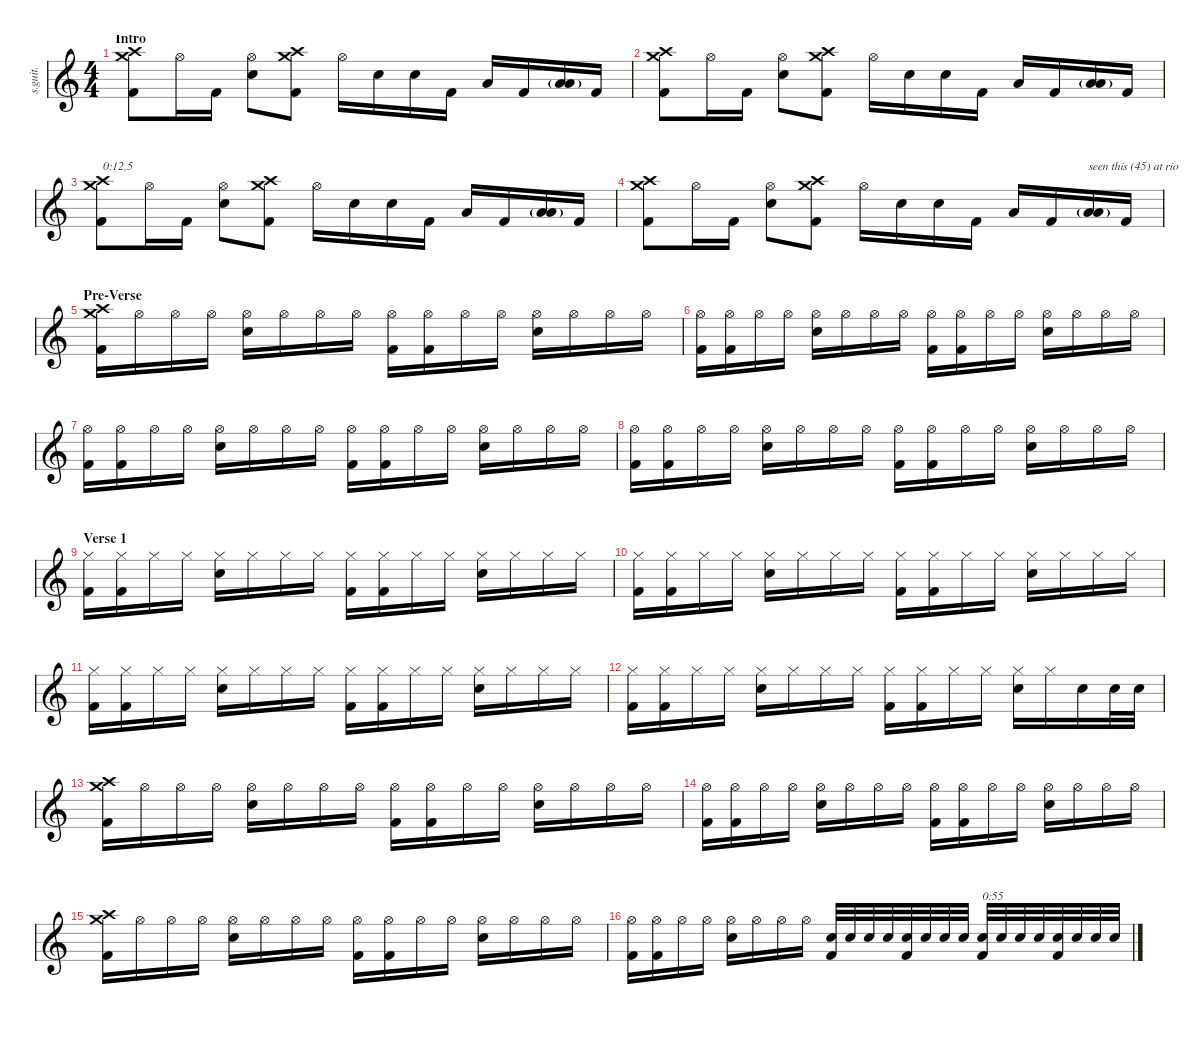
\defaultSystemsLayout 4
\hideDynamics
\bracketExtendMode nobrackets
\track ("Dave Grohl | Drums" "s.guit.") {instrument percussion}
\staff {score}
\articulation defaults
\ts (4 4)
\beaming (8 2 2 2 2)
\section ("" "Intro")
\tempo (79 hide)
\clef g2
\ks c
("Crash medium (hit)" "Crash high (hit)" "Kick (hit) 2").8{lyrics (0 "") lyrics (1 "") lyrics (2 "") lyrics (3 "") lyrics (4 "") dy f} "Hi-Hat (open)".16{lyrics (0 "") lyrics (1 "") lyrics (2 "") lyrics (3 "") lyrics (4 "")} "Kick (hit) 2".16{lyrics (0 "") lyrics (1 "") lyrics (2 "") lyrics (3 "") lyrics (4 "") dy fff} ("Hi-Hat (open)" "Snare (hit) 2").8{lyrics (0 "") lyrics (1 "") lyrics (2 "") lyrics (3 "") lyrics (4 "") dy f} ("Crash medium (hit)" "Crash high (hit)" "Kick (hit) 2").8{lyrics (0 "") lyrics (1 "") lyrics (2 "") lyrics (3 "") lyrics (4 "")} "Hi-Hat (open)".16{lyrics (0 "") lyrics (1 "") lyrics (2 "") lyrics (3 "") lyrics (4 "")} "Snare (hit) 2".16{lyrics (0 "") lyrics (1 "") lyrics (2 "") lyrics (3 "") lyrics (4 "")} "Snare (hit) 2".16{lyrics (0 "") lyrics (1 "") lyrics (2 "") lyrics (3 "") lyrics (4 "")} "Kick (hit) 2".16{lyrics (0 "") lyrics (1 "") lyrics (2 "") lyrics (3 "") lyrics (4 "") dy fff} "Low Tom (hit)".16{lyrics (0 "") lyrics (1 "") lyrics (2 "") lyrics (3 "") lyrics (4 "") dy f} "Kick (hit) 2".16{lyrics (0 "") lyrics (1 "") lyrics (2 "") lyrics (3 "") lyrics (4 "") dy fff} ("Low Tom (hit)"{g} "Low Floor Tom (hit)").16{lyrics (0 "") lyrics (1 "") lyrics (2 "") lyrics (3 "") lyrics (4 "") dy f} "Kick (hit) 2".16{lyrics (0 "") lyrics (1 "") lyrics (2 "") lyrics (3 "") lyrics (4 "") dy fff} |
("Crash medium (hit)" "Crash high (hit)" "Kick (hit) 2").8{lyrics (0 "") lyrics (1 "") lyrics (2 "") lyrics (3 "") lyrics (4 "") dy f} "Hi-Hat (open)".16{lyrics (0 "") lyrics (1 "") lyrics (2 "") lyrics (3 "") lyrics (4 "")} "Kick (hit) 2".16{lyrics (0 "") lyrics (1 "") lyrics (2 "") lyrics (3 "") lyrics (4 "") dy fff} ("Hi-Hat (open)" "Snare (hit) 2").8{lyrics (0 "") lyrics (1 "") lyrics (2 "") lyrics (3 "") lyrics (4 "") dy f} ("Crash medium (hit)" "Crash high (hit)" "Kick (hit) 2").8{lyrics (0 "") lyrics (1 "") lyrics (2 "") lyrics (3 "") lyrics (4 "")} "Hi-Hat (open)".16{lyrics (0 "") lyrics (1 "") lyrics (2 "") lyrics (3 "") lyrics (4 "")} "Snare (hit) 2".16{lyrics (0 "") lyrics (1 "") lyrics (2 "") lyrics (3 "") lyrics (4 "")} "Snare (hit) 2".16{lyrics (0 "") lyrics (1 "") lyrics (2 "") lyrics (3 "") lyrics (4 "")} "Kick (hit) 2".16{lyrics (0 "") lyrics (1 "") lyrics (2 "") lyrics (3 "") lyrics (4 "")} "Low Tom (hit)".16{lyrics (0 "") lyrics (1 "") lyrics (2 "") lyrics (3 "") lyrics (4 "")} "Kick (hit) 2".16{lyrics (0 "") lyrics (1 "") lyrics (2 "") lyrics (3 "") lyrics (4 "")} ("Low Tom (hit)"{g} "Low Floor Tom (hit)").16{lyrics (0 "") lyrics (1 "") lyrics (2 "") lyrics (3 "") lyrics (4 "")} "Kick (hit) 2".16{lyrics (0 "") lyrics (1 "") lyrics (2 "") lyrics (3 "") lyrics (4 "")} |
("Crash medium (hit)" "Crash high (hit)" "Kick (hit) 2").8{txt "0:12,5" lyrics (0 "") lyrics (1 "") lyrics (2 "") lyrics (3 "") lyrics (4 "")} "Hi-Hat (open)".16{lyrics (0 "") lyrics (1 "") lyrics (2 "") lyrics (3 "") lyrics (4 "")} "Kick (hit) 2".16{lyrics (0 "") lyrics (1 "") lyrics (2 "") lyrics (3 "") lyrics (4 "") dy fff} ("Hi-Hat (open)" "Snare (hit) 2").8{lyrics (0 "") lyrics (1 "") lyrics (2 "") lyrics (3 "") lyrics (4 "") dy f} ("Crash medium (hit)" "Crash high (hit)" "Kick (hit) 2").8{lyrics (0 "") lyrics (1 "") lyrics (2 "") lyrics (3 "") lyrics (4 "")} "Hi-Hat (open)".16{lyrics (0 "") lyrics (1 "") lyrics (2 "") lyrics (3 "") lyrics (4 "")} "Snare (hit) 2".16{lyrics (0 "") lyrics (1 "") lyrics (2 "") lyrics (3 "") lyrics (4 "")} "Snare (hit) 2".16{lyrics (0 "") lyrics (1 "") lyrics (2 "") lyrics (3 "") lyrics (4 "")} "Kick (hit) 2".16{lyrics (0 "") lyrics (1 "") lyrics (2 "") lyrics (3 "") lyrics (4 "")} "Low Tom (hit)".16{lyrics (0 "") lyrics (1 "") lyrics (2 "") lyrics (3 "") lyrics (4 "")} "Kick (hit) 2".16{lyrics (0 "") lyrics (1 "") lyrics (2 "") lyrics (3 "") lyrics (4 "")} ("Low Tom (hit)"{g} "Low Floor Tom (hit)").16{lyrics (0 "") lyrics (1 "") lyrics (2 "") lyrics (3 "") lyrics (4 "")} "Kick (hit) 2".16{lyrics (0 "") lyrics (1 "") lyrics (2 "") lyrics (3 "") lyrics (4 "")} |
("Crash medium (hit)" "Crash high (hit)" "Kick (hit) 2").8{lyrics (0 "") lyrics (1 "") lyrics (2 "") lyrics (3 "") lyrics (4 "")} "Hi-Hat (open)".16{lyrics (0 "") lyrics (1 "") lyrics (2 "") lyrics (3 "") lyrics (4 "")} "Kick (hit) 2".16{lyrics (0 "") lyrics (1 "") lyrics (2 "") lyrics (3 "") lyrics (4 "")} ("Hi-Hat (open)" "Snare (hit) 2").8{lyrics (0 "") lyrics (1 "") lyrics (2 "") lyrics (3 "") lyrics (4 "")} ("Crash medium (hit)" "Crash high (hit)" "Kick (hit) 2").8{lyrics (0 "") lyrics (1 "") lyrics (2 "") lyrics (3 "") lyrics (4 "")} "Hi-Hat (open)".16{lyrics (0 "") lyrics (1 "") lyrics (2 "") lyrics (3 "") lyrics (4 "")} "Snare (hit) 2".16{lyrics (0 "") lyrics (1 "") lyrics (2 "") lyrics (3 "") lyrics (4 "")} "Snare (hit) 2".16{lyrics (0 "") lyrics (1 "") lyrics (2 "") lyrics (3 "") lyrics (4 "")} "Kick (hit) 2".16{lyrics (0 "") lyrics (1 "") lyrics (2 "") lyrics (3 "") lyrics (4 "")} "Low Tom (hit)".16{lyrics (0 "") lyrics (1 "") lyrics (2 "") lyrics (3 "") lyrics (4 "")} "Kick (hit) 2".16{lyrics (0 "") lyrics (1 "") lyrics (2 "") lyrics (3 "") lyrics (4 "")} ("Low Tom (hit)"{g} "Low Floor Tom (hit)").16{txt "seen this (45) at rio" lyrics (0 "") lyrics (1 "") lyrics (2 "") lyrics (3 "") lyrics (4 "")} "Kick (hit) 2".16{lyrics (0 "") lyrics (1 "") lyrics (2 "") lyrics (3 "") lyrics (4 "")} |
\section ("" "Pre-Verse")
("Crash medium (hit)" "Crash high (hit)" "Kick (hit) 2").16{lyrics (0 "") lyrics (1 "") lyrics (2 "") lyrics (3 "") lyrics (4 "")} "Hi-Hat (open)".16{lyrics (0 "") lyrics (1 "") lyrics (2 "") lyrics (3 "") lyrics (4 "")} "Hi-Hat (open)".16{lyrics (0 "") lyrics (1 "") lyrics (2 "") lyrics (3 "") lyrics (4 "")} "Hi-Hat (open)".16{lyrics (0 "") lyrics (1 "") lyrics (2 "") lyrics (3 "") lyrics (4 "")} ("Hi-Hat (open)" "Snare (hit) 2").16{lyrics (0 "") lyrics (1 "") lyrics (2 "") lyrics (3 "") lyrics (4 "")} "Hi-Hat (open)".16{lyrics (0 "") lyrics (1 "") lyrics (2 "") lyrics (3 "") lyrics (4 "")} "Hi-Hat (open)".16{lyrics (0 "") lyrics (1 "") lyrics (2 "") lyrics (3 "") lyrics (4 "")} "Hi-Hat (open)".16{lyrics (0 "") lyrics (1 "") lyrics (2 "") lyrics (3 "") lyrics (4 "")} ("Hi-Hat (open)" "Kick (hit) 2").16{lyrics (0 "") lyrics (1 "") lyrics (2 "") lyrics (3 "") lyrics (4 "")} ("Kick (hit) 2" "Hi-Hat (open)").16{lyrics (0 "") lyrics (1 "") lyrics (2 "") lyrics (3 "") lyrics (4 "")} "Hi-Hat (open)".16{lyrics (0 "") lyrics (1 "") lyrics (2 "") lyrics (3 "") lyrics (4 "")} "Hi-Hat (open)".16{lyrics (0 "") lyrics (1 "") lyrics (2 "") lyrics (3 "") lyrics (4 "")} ("Hi-Hat (open)" "Snare (hit) 2").16{lyrics (0 "") lyrics (1 "") lyrics (2 "") lyrics (3 "") lyrics (4 "")} "Hi-Hat (open)".16{lyrics (0 "") lyrics (1 "") lyrics (2 "") lyrics (3 "") lyrics (4 "")} "Hi-Hat (open)".16{lyrics (0 "") lyrics (1 "") lyrics (2 "") lyrics (3 "") lyrics (4 "")} "Hi-Hat (open)".16{lyrics (0 "") lyrics (1 "") lyrics (2 "") lyrics (3 "") lyrics (4 "")} |
("Kick (hit) 2" "Hi-Hat (open)").16{lyrics (0 "") lyrics (1 "") lyrics (2 "") lyrics (3 "") lyrics (4 "")} ("Hi-Hat (open)" "Kick (hit) 2").16{lyrics (0 "") lyrics (1 "") lyrics (2 "") lyrics (3 "") lyrics (4 "")} "Hi-Hat (open)".16{lyrics (0 "") lyrics (1 "") lyrics (2 "") lyrics (3 "") lyrics (4 "")} "Hi-Hat (open)".16{lyrics (0 "") lyrics (1 "") lyrics (2 "") lyrics (3 "") lyrics (4 "")} ("Hi-Hat (open)" "Snare (hit) 2").16{lyrics (0 "") lyrics (1 "") lyrics (2 "") lyrics (3 "") lyrics (4 "")} "Hi-Hat (open)".16{lyrics (0 "") lyrics (1 "") lyrics (2 "") lyrics (3 "") lyrics (4 "")} "Hi-Hat (open)".16{lyrics (0 "") lyrics (1 "") lyrics (2 "") lyrics (3 "") lyrics (4 "")} "Hi-Hat (open)".16{lyrics (0 "") lyrics (1 "") lyrics (2 "") lyrics (3 "") lyrics (4 "")} ("Hi-Hat (open)" "Kick (hit) 2").16{lyrics (0 "") lyrics (1 "") lyrics (2 "") lyrics (3 "") lyrics (4 "")} ("Kick (hit) 2" "Hi-Hat (open)").16{lyrics (0 "") lyrics (1 "") lyrics (2 "") lyrics (3 "") lyrics (4 "")} "Hi-Hat (open)".16{lyrics (0 "") lyrics (1 "") lyrics (2 "") lyrics (3 "") lyrics (4 "")} "Hi-Hat (open)".16{lyrics (0 "") lyrics (1 "") lyrics (2 "") lyrics (3 "") lyrics (4 "")} ("Hi-Hat (open)" "Snare (hit) 2").16{lyrics (0 "") lyrics (1 "") lyrics (2 "") lyrics (3 "") lyrics (4 "")} "Hi-Hat (open)".16{lyrics (0 "") lyrics (1 "") lyrics (2 "") lyrics (3 "") lyrics (4 "")} "Hi-Hat (open)".16{lyrics (0 "") lyrics (1 "") lyrics (2 "") lyrics (3 "") lyrics (4 "")} "Hi-Hat (open)".16{lyrics (0 "") lyrics (1 "") lyrics (2 "") lyrics (3 "") lyrics (4 "")} |
("Kick (hit) 2" "Hi-Hat (open)").16{lyrics (0 "") lyrics (1 "") lyrics (2 "") lyrics (3 "") lyrics (4 "")} ("Hi-Hat (open)" "Kick (hit) 2").16{lyrics (0 "") lyrics (1 "") lyrics (2 "") lyrics (3 "") lyrics (4 "")} "Hi-Hat (open)".16{lyrics (0 "") lyrics (1 "") lyrics (2 "") lyrics (3 "") lyrics (4 "")} "Hi-Hat (open)".16{lyrics (0 "") lyrics (1 "") lyrics (2 "") lyrics (3 "") lyrics (4 "")} ("Hi-Hat (open)" "Snare (hit) 2").16{lyrics (0 "") lyrics (1 "") lyrics (2 "") lyrics (3 "") lyrics (4 "")} "Hi-Hat (open)".16{lyrics (0 "") lyrics (1 "") lyrics (2 "") lyrics (3 "") lyrics (4 "")} "Hi-Hat (open)".16{lyrics (0 "") lyrics (1 "") lyrics (2 "") lyrics (3 "") lyrics (4 "")} "Hi-Hat (open)".16{lyrics (0 "") lyrics (1 "") lyrics (2 "") lyrics (3 "") lyrics (4 "")} ("Hi-Hat (open)" "Kick (hit) 2").16{lyrics (0 "") lyrics (1 "") lyrics (2 "") lyrics (3 "") lyrics (4 "")} ("Kick (hit) 2" "Hi-Hat (open)").16{lyrics (0 "") lyrics (1 "") lyrics (2 "") lyrics (3 "") lyrics (4 "")} "Hi-Hat (open)".16{lyrics (0 "") lyrics (1 "") lyrics (2 "") lyrics (3 "") lyrics (4 "")} "Hi-Hat (open)".16{lyrics (0 "") lyrics (1 "") lyrics (2 "") lyrics (3 "") lyrics (4 "")} ("Hi-Hat (open)" "Snare (hit) 2").16{lyrics (0 "") lyrics (1 "") lyrics (2 "") lyrics (3 "") lyrics (4 "")} "Hi-Hat (open)".16{lyrics (0 "") lyrics (1 "") lyrics (2 "") lyrics (3 "") lyrics (4 "")} "Hi-Hat (open)".16{lyrics (0 "") lyrics (1 "") lyrics (2 "") lyrics (3 "") lyrics (4 "")} "Hi-Hat (open)".16{lyrics (0 "") lyrics (1 "") lyrics (2 "") lyrics (3 "") lyrics (4 "")} |
("Kick (hit) 2" "Hi-Hat (open)").16{lyrics (0 "") lyrics (1 "") lyrics (2 "") lyrics (3 "") lyrics (4 "")} ("Hi-Hat (open)" "Kick (hit) 2").16{lyrics (0 "") lyrics (1 "") lyrics (2 "") lyrics (3 "") lyrics (4 "")} "Hi-Hat (open)".16{lyrics (0 "") lyrics (1 "") lyrics (2 "") lyrics (3 "") lyrics (4 "")} "Hi-Hat (open)".16{lyrics (0 "") lyrics (1 "") lyrics (2 "") lyrics (3 "") lyrics (4 "")} ("Hi-Hat (open)" "Snare (hit) 2").16{lyrics (0 "") lyrics (1 "") lyrics (2 "") lyrics (3 "") lyrics (4 "")} "Hi-Hat (open)".16{lyrics (0 "") lyrics (1 "") lyrics (2 "") lyrics (3 "") lyrics (4 "")} "Hi-Hat (open)".16{lyrics (0 "") lyrics (1 "") lyrics (2 "") lyrics (3 "") lyrics (4 "")} "Hi-Hat (open)".16{lyrics (0 "") lyrics (1 "") lyrics (2 "") lyrics (3 "") lyrics (4 "")} ("Hi-Hat (open)" "Kick (hit) 2").16{lyrics (0 "") lyrics (1 "") lyrics (2 "") lyrics (3 "") lyrics (4 "")} ("Kick (hit) 2" "Hi-Hat (open)").16{lyrics (0 "") lyrics (1 "") lyrics (2 "") lyrics (3 "") lyrics (4 "")} "Hi-Hat (open)".16{lyrics (0 "") lyrics (1 "") lyrics (2 "") lyrics (3 "") lyrics (4 "")} "Hi-Hat (open)".16{lyrics (0 "") lyrics (1 "") lyrics (2 "") lyrics (3 "") lyrics (4 "")} ("Hi-Hat (open)" "Snare (hit) 2").16{lyrics (0 "") lyrics (1 "") lyrics (2 "") lyrics (3 "") lyrics (4 "")} "Hi-Hat (open)".16{lyrics (0 "") lyrics (1 "") lyrics (2 "") lyrics (3 "") lyrics (4 "")} "Hi-Hat (open)".16{lyrics (0 "") lyrics (1 "") lyrics (2 "") lyrics (3 "") lyrics (4 "")} "Hi-Hat (open)".16{lyrics (0 "") lyrics (1 "") lyrics (2 "") lyrics (3 "") lyrics (4 "")} |
\section ("" "Verse 1")
("Kick (hit) 2" "Hi-Hat (closed)").16{lyrics (0 "") lyrics (1 "") lyrics (2 "") lyrics (3 "") lyrics (4 "")} ("Kick (hit) 2" "Hi-Hat (closed)").16{lyrics (0 "") lyrics (1 "") lyrics (2 "") lyrics (3 "") lyrics (4 "")} "Hi-Hat (closed)".16{lyrics (0 "") lyrics (1 "") lyrics (2 "") lyrics (3 "") lyrics (4 "")} "Hi-Hat (closed)".16{lyrics (0 "") lyrics (1 "") lyrics (2 "") lyrics (3 "") lyrics (4 "")} ("Snare (hit) 2" "Hi-Hat (closed)").16{lyrics (0 "") lyrics (1 "") lyrics (2 "") lyrics (3 "") lyrics (4 "")} "Hi-Hat (closed)".16{lyrics (0 "") lyrics (1 "") lyrics (2 "") lyrics (3 "") lyrics (4 "")} "Hi-Hat (closed)".16{lyrics (0 "") lyrics (1 "") lyrics (2 "") lyrics (3 "") lyrics (4 "")} "Hi-Hat (closed)".16{lyrics (0 "") lyrics (1 "") lyrics (2 "") lyrics (3 "") lyrics (4 "")} ("Kick (hit) 2" "Hi-Hat (closed)").16{lyrics (0 "") lyrics (1 "") lyrics (2 "") lyrics (3 "") lyrics (4 "")} ("Kick (hit) 2" "Hi-Hat (closed)").16{lyrics (0 "") lyrics (1 "") lyrics (2 "") lyrics (3 "") lyrics (4 "")} "Hi-Hat (closed)".16{lyrics (0 "") lyrics (1 "") lyrics (2 "") lyrics (3 "") lyrics (4 "")} "Hi-Hat (closed)".16{lyrics (0 "") lyrics (1 "") lyrics (2 "") lyrics (3 "") lyrics (4 "")} ("Snare (hit) 2" "Hi-Hat (closed)").16{lyrics (0 "") lyrics (1 "") lyrics (2 "") lyrics (3 "") lyrics (4 "")} "Hi-Hat (closed)".16{lyrics (0 "") lyrics (1 "") lyrics (2 "") lyrics (3 "") lyrics (4 "")} "Hi-Hat (closed)".16{lyrics (0 "") lyrics (1 "") lyrics (2 "") lyrics (3 "") lyrics (4 "")} "Hi-Hat (closed)".16{lyrics (0 "") lyrics (1 "") lyrics (2 "") lyrics (3 "") lyrics (4 "")} |
("Kick (hit) 2" "Hi-Hat (closed)").16{lyrics (0 "") lyrics (1 "") lyrics (2 "") lyrics (3 "") lyrics (4 "")} ("Kick (hit) 2" "Hi-Hat (closed)").16{lyrics (0 "") lyrics (1 "") lyrics (2 "") lyrics (3 "") lyrics (4 "")} "Hi-Hat (closed)".16{lyrics (0 "") lyrics (1 "") lyrics (2 "") lyrics (3 "") lyrics (4 "")} "Hi-Hat (closed)".16{lyrics (0 "") lyrics (1 "") lyrics (2 "") lyrics (3 "") lyrics (4 "")} ("Snare (hit) 2" "Hi-Hat (closed)").16{lyrics (0 "") lyrics (1 "") lyrics (2 "") lyrics (3 "") lyrics (4 "")} "Hi-Hat (closed)".16{lyrics (0 "") lyrics (1 "") lyrics (2 "") lyrics (3 "") lyrics (4 "")} "Hi-Hat (closed)".16{lyrics (0 "") lyrics (1 "") lyrics (2 "") lyrics (3 "") lyrics (4 "")} "Hi-Hat (closed)".16{lyrics (0 "") lyrics (1 "") lyrics (2 "") lyrics (3 "") lyrics (4 "")} ("Kick (hit) 2" "Hi-Hat (closed)").16{lyrics (0 "") lyrics (1 "") lyrics (2 "") lyrics (3 "") lyrics (4 "")} ("Kick (hit) 2" "Hi-Hat (closed)").16{lyrics (0 "") lyrics (1 "") lyrics (2 "") lyrics (3 "") lyrics (4 "")} "Hi-Hat (closed)".16{lyrics (0 "") lyrics (1 "") lyrics (2 "") lyrics (3 "") lyrics (4 "")} "Hi-Hat (closed)".16{lyrics (0 "") lyrics (1 "") lyrics (2 "") lyrics (3 "") lyrics (4 "")} ("Snare (hit) 2" "Hi-Hat (closed)").16{lyrics (0 "") lyrics (1 "") lyrics (2 "") lyrics (3 "") lyrics (4 "")} "Hi-Hat (closed)".16{lyrics (0 "") lyrics (1 "") lyrics (2 "") lyrics (3 "") lyrics (4 "")} "Hi-Hat (closed)".16{lyrics (0 "") lyrics (1 "") lyrics (2 "") lyrics (3 "") lyrics (4 "")} "Hi-Hat (closed)".16{lyrics (0 "") lyrics (1 "") lyrics (2 "") lyrics (3 "") lyrics (4 "")} |
("Kick (hit) 2" "Hi-Hat (closed)").16{lyrics (0 "") lyrics (1 "") lyrics (2 "") lyrics (3 "") lyrics (4 "")} ("Kick (hit) 2" "Hi-Hat (closed)").16{lyrics (0 "") lyrics (1 "") lyrics (2 "") lyrics (3 "") lyrics (4 "")} "Hi-Hat (closed)".16{lyrics (0 "") lyrics (1 "") lyrics (2 "") lyrics (3 "") lyrics (4 "")} "Hi-Hat (closed)".16{lyrics (0 "") lyrics (1 "") lyrics (2 "") lyrics (3 "") lyrics (4 "")} ("Snare (hit) 2" "Hi-Hat (closed)").16{lyrics (0 "") lyrics (1 "") lyrics (2 "") lyrics (3 "") lyrics (4 "")} "Hi-Hat (closed)".16{lyrics (0 "") lyrics (1 "") lyrics (2 "") lyrics (3 "") lyrics (4 "")} "Hi-Hat (closed)".16{lyrics (0 "") lyrics (1 "") lyrics (2 "") lyrics (3 "") lyrics (4 "")} "Hi-Hat (closed)".16{lyrics (0 "") lyrics (1 "") lyrics (2 "") lyrics (3 "") lyrics (4 "")} ("Kick (hit) 2" "Hi-Hat (closed)").16{lyrics (0 "") lyrics (1 "") lyrics (2 "") lyrics (3 "") lyrics (4 "")} ("Kick (hit) 2" "Hi-Hat (closed)").16{lyrics (0 "") lyrics (1 "") lyrics (2 "") lyrics (3 "") lyrics (4 "")} "Hi-Hat (closed)".16{lyrics (0 "") lyrics (1 "") lyrics (2 "") lyrics (3 "") lyrics (4 "")} "Hi-Hat (closed)".16{lyrics (0 "") lyrics (1 "") lyrics (2 "") lyrics (3 "") lyrics (4 "")} ("Snare (hit) 2" "Hi-Hat (closed)").16{lyrics (0 "") lyrics (1 "") lyrics (2 "") lyrics (3 "") lyrics (4 "")} "Hi-Hat (closed)".16{lyrics (0 "") lyrics (1 "") lyrics (2 "") lyrics (3 "") lyrics (4 "")} "Hi-Hat (closed)".16{lyrics (0 "") lyrics (1 "") lyrics (2 "") lyrics (3 "") lyrics (4 "")} "Hi-Hat (closed)".16{lyrics (0 "") lyrics (1 "") lyrics (2 "") lyrics (3 "") lyrics (4 "")} |
("Kick (hit) 2" "Hi-Hat (closed)").16{lyrics (0 "") lyrics (1 "") lyrics (2 "") lyrics (3 "") lyrics (4 "")} ("Kick (hit) 2" "Hi-Hat (closed)").16{lyrics (0 "") lyrics (1 "") lyrics (2 "") lyrics (3 "") lyrics (4 "")} "Hi-Hat (closed)".16{lyrics (0 "") lyrics (1 "") lyrics (2 "") lyrics (3 "") lyrics (4 "")} "Hi-Hat (closed)".16{lyrics (0 "") lyrics (1 "") lyrics (2 "") lyrics (3 "") lyrics (4 "")} ("Snare (hit) 2" "Hi-Hat (closed)").16{lyrics (0 "") lyrics (1 "") lyrics (2 "") lyrics (3 "") lyrics (4 "")} "Hi-Hat (closed)".16{lyrics (0 "") lyrics (1 "") lyrics (2 "") lyrics (3 "") lyrics (4 "")} "Hi-Hat (closed)".16{lyrics (0 "") lyrics (1 "") lyrics (2 "") lyrics (3 "") lyrics (4 "")} "Hi-Hat (closed)".16{lyrics (0 "") lyrics (1 "") lyrics (2 "") lyrics (3 "") lyrics (4 "")} ("Kick (hit) 2" "Hi-Hat (closed)").16{lyrics (0 "") lyrics (1 "") lyrics (2 "") lyrics (3 "") lyrics (4 "")} ("Kick (hit) 2" "Hi-Hat (closed)").16{lyrics (0 "") lyrics (1 "") lyrics (2 "") lyrics (3 "") lyrics (4 "")} "Hi-Hat (closed)".16{lyrics (0 "") lyrics (1 "") lyrics (2 "") lyrics (3 "") lyrics (4 "")} "Hi-Hat (closed)".16{lyrics (0 "") lyrics (1 "") lyrics (2 "") lyrics (3 "") lyrics (4 "")} ("Snare (hit) 2" "Hi-Hat (closed)").16{lyrics (0 "") lyrics (1 "") lyrics (2 "") lyrics (3 "") lyrics (4 "")} "Hi-Hat (closed)".16{lyrics (0 "") lyrics (1 "") lyrics (2 "") lyrics (3 "") lyrics (4 "")} "Snare (hit) 2".16{lyrics (0 "") lyrics (1 "") lyrics (2 "") lyrics (3 "") lyrics (4 "")} "Snare (hit) 2".32{lyrics (0 "") lyrics (1 "") lyrics (2 "") lyrics (3 "") lyrics (4 "")} "Snare (hit) 2".32{lyrics (0 "") lyrics (1 "") lyrics (2 "") lyrics (3 "") lyrics (4 "")} |
("Crash medium (hit)" "Crash high (hit)" "Kick (hit) 2").16{lyrics (0 "") lyrics (1 "") lyrics (2 "") lyrics (3 "") lyrics (4 "")} "Hi-Hat (open)".16{lyrics (0 "") lyrics (1 "") lyrics (2 "") lyrics (3 "") lyrics (4 "")} "Hi-Hat (open)".16{lyrics (0 "") lyrics (1 "") lyrics (2 "") lyrics (3 "") lyrics (4 "")} "Hi-Hat (open)".16{lyrics (0 "") lyrics (1 "") lyrics (2 "") lyrics (3 "") lyrics (4 "")} ("Hi-Hat (open)" "Snare (hit) 2").16{lyrics (0 "") lyrics (1 "") lyrics (2 "") lyrics (3 "") lyrics (4 "")} "Hi-Hat (open)".16{lyrics (0 "") lyrics (1 "") lyrics (2 "") lyrics (3 "") lyrics (4 "")} "Hi-Hat (open)".16{lyrics (0 "") lyrics (1 "") lyrics (2 "") lyrics (3 "") lyrics (4 "")} "Hi-Hat (open)".16{lyrics (0 "") lyrics (1 "") lyrics (2 "") lyrics (3 "") lyrics (4 "")} ("Hi-Hat (open)" "Kick (hit) 2").16{lyrics (0 "") lyrics (1 "") lyrics (2 "") lyrics (3 "") lyrics (4 "")} ("Kick (hit) 2" "Hi-Hat (open)").16{lyrics (0 "") lyrics (1 "") lyrics (2 "") lyrics (3 "") lyrics (4 "")} "Hi-Hat (open)".16{lyrics (0 "") lyrics (1 "") lyrics (2 "") lyrics (3 "") lyrics (4 "")} "Hi-Hat (open)".16{lyrics (0 "") lyrics (1 "") lyrics (2 "") lyrics (3 "") lyrics (4 "")} ("Hi-Hat (open)" "Snare (hit) 2").16{lyrics (0 "") lyrics (1 "") lyrics (2 "") lyrics (3 "") lyrics (4 "")} "Hi-Hat (open)".16{lyrics (0 "") lyrics (1 "") lyrics (2 "") lyrics (3 "") lyrics (4 "")} "Hi-Hat (open)".16{lyrics (0 "") lyrics (1 "") lyrics (2 "") lyrics (3 "") lyrics (4 "")} "Hi-Hat (open)".16{lyrics (0 "") lyrics (1 "") lyrics (2 "") lyrics (3 "") lyrics (4 "")} |
("Kick (hit) 2" "Hi-Hat (open)").16{lyrics (0 "") lyrics (1 "") lyrics (2 "") lyrics (3 "") lyrics (4 "")} ("Hi-Hat (open)" "Kick (hit) 2").16{lyrics (0 "") lyrics (1 "") lyrics (2 "") lyrics (3 "") lyrics (4 "")} "Hi-Hat (open)".16{lyrics (0 "") lyrics (1 "") lyrics (2 "") lyrics (3 "") lyrics (4 "")} "Hi-Hat (open)".16{lyrics (0 "") lyrics (1 "") lyrics (2 "") lyrics (3 "") lyrics (4 "")} ("Hi-Hat (open)" "Snare (hit) 2").16{lyrics (0 "") lyrics (1 "") lyrics (2 "") lyrics (3 "") lyrics (4 "")} "Hi-Hat (open)".16{lyrics (0 "") lyrics (1 "") lyrics (2 "") lyrics (3 "") lyrics (4 "")} "Hi-Hat (open)".16{lyrics (0 "") lyrics (1 "") lyrics (2 "") lyrics (3 "") lyrics (4 "")} "Hi-Hat (open)".16{lyrics (0 "") lyrics (1 "") lyrics (2 "") lyrics (3 "") lyrics (4 "")} ("Hi-Hat (open)" "Kick (hit) 2").16{lyrics (0 "") lyrics (1 "") lyrics (2 "") lyrics (3 "") lyrics (4 "")} ("Kick (hit) 2" "Hi-Hat (open)").16{lyrics (0 "") lyrics (1 "") lyrics (2 "") lyrics (3 "") lyrics (4 "")} "Hi-Hat (open)".16{lyrics (0 "") lyrics (1 "") lyrics (2 "") lyrics (3 "") lyrics (4 "")} "Hi-Hat (open)".16{lyrics (0 "") lyrics (1 "") lyrics (2 "") lyrics (3 "") lyrics (4 "")} ("Hi-Hat (open)" "Snare (hit) 2").16{lyrics (0 "") lyrics (1 "") lyrics (2 "") lyrics (3 "") lyrics (4 "")} "Hi-Hat (open)".16{lyrics (0 "") lyrics (1 "") lyrics (2 "") lyrics (3 "") lyrics (4 "")} "Hi-Hat (open)".16{lyrics (0 "") lyrics (1 "") lyrics (2 "") lyrics (3 "") lyrics (4 "")} "Hi-Hat (open)".16{lyrics (0 "") lyrics (1 "") lyrics (2 "") lyrics (3 "") lyrics (4 "")} |
("Crash medium (hit)" "Crash high (hit)" "Kick (hit) 2").16{lyrics (0 "") lyrics (1 "") lyrics (2 "") lyrics (3 "") lyrics (4 "")} "Hi-Hat (open)".16{lyrics (0 "") lyrics (1 "") lyrics (2 "") lyrics (3 "") lyrics (4 "")} "Hi-Hat (open)".16{lyrics (0 "") lyrics (1 "") lyrics (2 "") lyrics (3 "") lyrics (4 "")} "Hi-Hat (open)".16{lyrics (0 "") lyrics (1 "") lyrics (2 "") lyrics (3 "") lyrics (4 "")} ("Hi-Hat (open)" "Snare (hit) 2").16{lyrics (0 "") lyrics (1 "") lyrics (2 "") lyrics (3 "") lyrics (4 "")} "Hi-Hat (open)".16{lyrics (0 "") lyrics (1 "") lyrics (2 "") lyrics (3 "") lyrics (4 "")} "Hi-Hat (open)".16{lyrics (0 "") lyrics (1 "") lyrics (2 "") lyrics (3 "") lyrics (4 "")} "Hi-Hat (open)".16{lyrics (0 "") lyrics (1 "") lyrics (2 "") lyrics (3 "") lyrics (4 "")} ("Hi-Hat (open)" "Kick (hit) 2").16{lyrics (0 "") lyrics (1 "") lyrics (2 "") lyrics (3 "") lyrics (4 "")} ("Kick (hit) 2" "Hi-Hat (open)").16{lyrics (0 "") lyrics (1 "") lyrics (2 "") lyrics (3 "") lyrics (4 "")} "Hi-Hat (open)".16{lyrics (0 "") lyrics (1 "") lyrics (2 "") lyrics (3 "") lyrics (4 "")} "Hi-Hat (open)".16{lyrics (0 "") lyrics (1 "") lyrics (2 "") lyrics (3 "") lyrics (4 "")} ("Hi-Hat (open)" "Snare (hit) 2").16{lyrics (0 "") lyrics (1 "") lyrics (2 "") lyrics (3 "") lyrics (4 "")} "Hi-Hat (open)".16{lyrics (0 "") lyrics (1 "") lyrics (2 "") lyrics (3 "") lyrics (4 "")} "Hi-Hat (open)".16{lyrics (0 "") lyrics (1 "") lyrics (2 "") lyrics (3 "") lyrics (4 "")} "Hi-Hat (open)".16{lyrics (0 "") lyrics (1 "") lyrics (2 "") lyrics (3 "") lyrics (4 "")} |
("Kick (hit) 2" "Hi-Hat (open)").16{lyrics (0 "") lyrics (1 "") lyrics (2 "") lyrics (3 "") lyrics (4 "")} ("Hi-Hat (open)" "Kick (hit) 2").16{lyrics (0 "") lyrics (1 "") lyrics (2 "") lyrics (3 "") lyrics (4 "")} "Hi-Hat (open)".16{lyrics (0 "") lyrics (1 "") lyrics (2 "") lyrics (3 "") lyrics (4 "")} "Hi-Hat (open)".16{lyrics (0 "") lyrics (1 "") lyrics (2 "") lyrics (3 "") lyrics (4 "")} ("Hi-Hat (open)" "Snare (hit) 2").16{lyrics (0 "") lyrics (1 "") lyrics (2 "") lyrics (3 "") lyrics (4 "")} "Hi-Hat (open)".16{lyrics (0 "") lyrics (1 "") lyrics (2 "") lyrics (3 "") lyrics (4 "")} "Hi-Hat (open)".16{lyrics (0 "") lyrics (1 "") lyrics (2 "") lyrics (3 "") lyrics (4 "")} "Hi-Hat (open)".16{lyrics (0 "") lyrics (1 "") lyrics (2 "") lyrics (3 "") lyrics (4 "")} ("Snare (hit) 2" "Kick (hit) 2").32{lyrics (0 "") lyrics (1 "") lyrics (2 "") lyrics (3 "") lyrics (4 "")} "Snare (hit) 2".32{lyrics (0 "") lyrics (1 "") lyrics (2 "") lyrics (3 "") lyrics (4 "")} "Snare (hit) 2".32{lyrics (0 "") lyrics (1 "") lyrics (2 "") lyrics (3 "") lyrics (4 "")} "Snare (hit) 2".32{lyrics (0 "") lyrics (1 "") lyrics (2 "") lyrics (3 "") lyrics (4 "")} ("Snare (hit) 2" "Kick (hit) 2").32{lyrics (0 "") lyrics (1 "") lyrics (2 "") lyrics (3 "") lyrics (4 "")} "Snare (hit) 2".32{lyrics (0 "") lyrics (1 "") lyrics (2 "") lyrics (3 "") lyrics (4 "")} "Snare (hit) 2".32{lyrics (0 "") lyrics (1 "") lyrics (2 "") lyrics (3 "") lyrics (4 "")} "Snare (hit) 2".32{lyrics (0 "") lyrics (1 "") lyrics (2 "") lyrics (3 "") lyrics (4 "")} ("Snare (hit) 2" "Kick (hit) 2").32{txt "0:55" lyrics (0 "") lyrics (1 "") lyrics (2 "") lyrics (3 "") lyrics (4 "")} "Snare (hit) 2".32{lyrics (0 "") lyrics (1 "") lyrics (2 "") lyrics (3 "") lyrics (4 "")} "Snare (hit) 2".32{lyrics (0 "") lyrics (1 "") lyrics (2 "") lyrics (3 "") lyrics (4 "")} "Snare (hit) 2".32{lyrics (0 "") lyrics (1 "") lyrics (2 "") lyrics (3 "") lyrics (4 "")} ("Snare (hit) 2" "Kick (hit) 2").32{lyrics (0 "") lyrics (1 "") lyrics (2 "") lyrics (3 "") lyrics (4 "")} "Snare (hit) 2".32{lyrics (0 "") lyrics (1 "") lyrics (2 "") lyrics (3 "") lyrics (4 "")} "Snare (hit) 2".32{lyrics (0 "") lyrics (1 "") lyrics (2 "") lyrics (3 "") lyrics (4 "")} "Snare (hit) 2".32{lyrics (0 "") lyrics (1 "") lyrics (2 "") lyrics (3 "") lyrics (4 "")}
